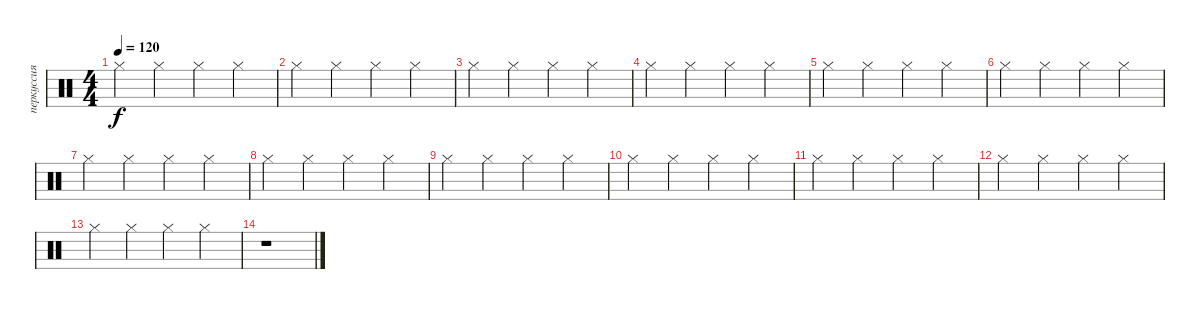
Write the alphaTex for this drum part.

\track ("перкуссия" "перкуссия") {instrument percussion}
\staff {score}
\articulation defaults
\ts (4 4)
\tempo 120
\clef neutral
\ks c "Hi-Hat (closed)".4{dy f} "Hi-Hat (closed)".4 "Hi-Hat (closed)".4 "Hi-Hat (closed)".4
|
"Hi-Hat (closed)".4 "Hi-Hat (closed)".4 "Hi-Hat (closed)".4 "Hi-Hat (closed)".4 |
"Hi-Hat (closed)".4 "Hi-Hat (closed)".4 "Hi-Hat (closed)".4 "Hi-Hat (closed)".4 |
"Hi-Hat (closed)".4 "Hi-Hat (closed)".4 "Hi-Hat (closed)".4 "Hi-Hat (closed)".4 |
"Hi-Hat (closed)".4 "Hi-Hat (closed)".4 "Hi-Hat (closed)".4 "Hi-Hat (closed)".4 |
"Hi-Hat (closed)".4 "Hi-Hat (closed)".4 "Hi-Hat (closed)".4 "Hi-Hat (closed)".4 |
"Hi-Hat (closed)".4 "Hi-Hat (closed)".4 "Hi-Hat (closed)".4 "Hi-Hat (closed)".4 |
"Hi-Hat (closed)".4 "Hi-Hat (closed)".4 "Hi-Hat (closed)".4 "Hi-Hat (closed)".4 |
"Hi-Hat (closed)".4 "Hi-Hat (closed)".4 "Hi-Hat (closed)".4 "Hi-Hat (closed)".4 |
"Hi-Hat (closed)".4 "Hi-Hat (closed)".4 "Hi-Hat (closed)".4 "Hi-Hat (closed)".4 |
"Hi-Hat (closed)".4 "Hi-Hat (closed)".4 "Hi-Hat (closed)".4 "Hi-Hat (closed)".4 |
"Hi-Hat (closed)".4 "Hi-Hat (closed)".4 "Hi-Hat (closed)".4 "Hi-Hat (closed)".4 |
"Hi-Hat (closed)".4 "Hi-Hat (closed)".4 "Hi-Hat (closed)".4 "Hi-Hat (closed)".4 |
r.1
